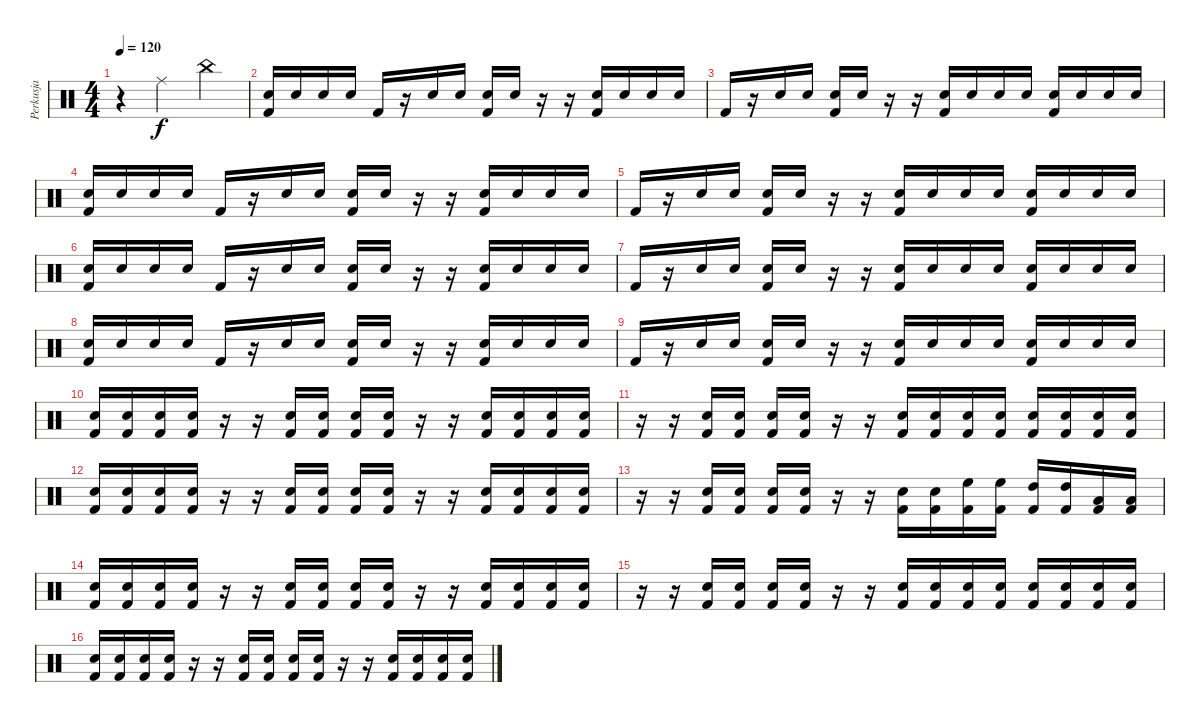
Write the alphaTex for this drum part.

\track ("Perkusja" "Perkusja") {instrument percussion}
\staff {score}
\articulation defaults
\ts (4 4)
\tempo 120
\clef neutral
\ks c
r.4{dy f} "Ride (middle)".2 "China (hit)".4 |
("Electric Snare (hit)" "Kick (hit) 2").16 "Electric Snare (hit)".16 "Electric Snare (hit)".16 "Electric Snare (hit)".16 "Kick (hit) 2".16 r.16 "Electric Snare (hit)".16 "Electric Snare (hit)".16 ("Electric Snare (hit)" "Kick (hit) 2").16 "Electric Snare (hit)".16 r.16 r.16 ("Electric Snare (hit)" "Kick (hit) 2").16 "Electric Snare (hit)".16 "Electric Snare (hit)".16 "Electric Snare (hit)".16 |
"Kick (hit) 2".16 r.16 "Electric Snare (hit)".16 "Electric Snare (hit)".16 ("Electric Snare (hit)" "Kick (hit) 2").16 "Electric Snare (hit)".16 r.16 r.16 ("Electric Snare (hit)" "Kick (hit) 2").16 "Electric Snare (hit)".16 "Electric Snare (hit)".16 "Electric Snare (hit)".16 ("Electric Snare (hit)" "Kick (hit) 2").16 "Electric Snare (hit)".16 "Electric Snare (hit)".16 "Electric Snare (hit)".16 |
("Electric Snare (hit)" "Kick (hit) 2").16 "Electric Snare (hit)".16 "Electric Snare (hit)".16 "Electric Snare (hit)".16 "Kick (hit) 2".16 r.16 "Electric Snare (hit)".16 "Electric Snare (hit)".16 ("Electric Snare (hit)" "Kick (hit) 2").16 "Electric Snare (hit)".16 r.16 r.16 ("Electric Snare (hit)" "Kick (hit) 2").16 "Electric Snare (hit)".16 "Electric Snare (hit)".16 "Electric Snare (hit)".16 |
"Kick (hit) 2".16 r.16 "Electric Snare (hit)".16 "Electric Snare (hit)".16 ("Electric Snare (hit)" "Kick (hit) 2").16 "Electric Snare (hit)".16 r.16 r.16 ("Electric Snare (hit)" "Kick (hit) 2").16 "Electric Snare (hit)".16 "Electric Snare (hit)".16 "Electric Snare (hit)".16 ("Electric Snare (hit)" "Kick (hit) 2").16 "Electric Snare (hit)".16 "Electric Snare (hit)".16 "Electric Snare (hit)".16 |
("Electric Snare (hit)" "Kick (hit) 2").16 "Electric Snare (hit)".16 "Electric Snare (hit)".16 "Electric Snare (hit)".16 "Kick (hit) 2".16 r.16 "Electric Snare (hit)".16 "Electric Snare (hit)".16 ("Electric Snare (hit)" "Kick (hit) 2").16 "Electric Snare (hit)".16 r.16 r.16 ("Electric Snare (hit)" "Kick (hit) 2").16 "Electric Snare (hit)".16 "Electric Snare (hit)".16 "Electric Snare (hit)".16 |
"Kick (hit) 2".16 r.16 "Electric Snare (hit)".16 "Electric Snare (hit)".16 ("Electric Snare (hit)" "Kick (hit) 2").16 "Electric Snare (hit)".16 r.16 r.16 ("Electric Snare (hit)" "Kick (hit) 2").16 "Electric Snare (hit)".16 "Electric Snare (hit)".16 "Electric Snare (hit)".16 ("Electric Snare (hit)" "Kick (hit) 2").16 "Electric Snare (hit)".16 "Electric Snare (hit)".16 "Electric Snare (hit)".16 |
("Electric Snare (hit)" "Kick (hit) 2").16 "Electric Snare (hit)".16 "Electric Snare (hit)".16 "Electric Snare (hit)".16 "Kick (hit) 2".16 r.16 "Electric Snare (hit)".16 "Electric Snare (hit)".16 ("Electric Snare (hit)" "Kick (hit) 2").16 "Electric Snare (hit)".16 r.16 r.16 ("Electric Snare (hit)" "Kick (hit) 2").16 "Electric Snare (hit)".16 "Electric Snare (hit)".16 "Electric Snare (hit)".16 |
"Kick (hit) 2".16 r.16 "Electric Snare (hit)".16 "Electric Snare (hit)".16 ("Electric Snare (hit)" "Kick (hit) 2").16 "Electric Snare (hit)".16 r.16 r.16 ("Electric Snare (hit)" "Kick (hit) 2").16 "Electric Snare (hit)".16 "Electric Snare (hit)".16 "Electric Snare (hit)".16 ("Electric Snare (hit)" "Kick (hit) 2").16 "Electric Snare (hit)".16 "Electric Snare (hit)".16 "Electric Snare (hit)".16 |
("Electric Snare (hit)" "Kick (hit) 2").16 ("Electric Snare (hit)" "Kick (hit) 2").16 ("Electric Snare (hit)" "Kick (hit) 2").16 ("Electric Snare (hit)" "Kick (hit) 2").16 r.16 r.16 ("Electric Snare (hit)" "Kick (hit) 2").16 ("Electric Snare (hit)" "Kick (hit) 2").16 ("Electric Snare (hit)" "Kick (hit) 2").16 ("Electric Snare (hit)" "Kick (hit) 2").16 r.16 r.16 ("Electric Snare (hit)" "Kick (hit) 2").16 ("Electric Snare (hit)" "Kick (hit) 2").16 ("Electric Snare (hit)" "Kick (hit) 2").16 ("Electric Snare (hit)" "Kick (hit) 2").16 |
r.16 r.16 ("Electric Snare (hit)" "Kick (hit) 2").16 ("Electric Snare (hit)" "Kick (hit) 2").16 ("Electric Snare (hit)" "Kick (hit) 2").16 ("Electric Snare (hit)" "Kick (hit) 2").16 r.16 r.16 ("Electric Snare (hit)" "Kick (hit) 2").16 ("Electric Snare (hit)" "Kick (hit) 2").16 ("Electric Snare (hit)" "Kick (hit) 2").16 ("Electric Snare (hit)" "Kick (hit) 2").16 ("Electric Snare (hit)" "Kick (hit) 2").16 ("Electric Snare (hit)" "Kick (hit) 2").16 ("Electric Snare (hit)" "Kick (hit) 2").16 ("Electric Snare (hit)" "Kick (hit) 2").16 |
("Electric Snare (hit)" "Kick (hit) 2").16 ("Electric Snare (hit)" "Kick (hit) 2").16 ("Electric Snare (hit)" "Kick (hit) 2").16 ("Electric Snare (hit)" "Kick (hit) 2").16 r.16 r.16 ("Electric Snare (hit)" "Kick (hit) 2").16 ("Electric Snare (hit)" "Kick (hit) 2").16 ("Electric Snare (hit)" "Kick (hit) 2").16 ("Electric Snare (hit)" "Kick (hit) 2").16 r.16 r.16 ("Electric Snare (hit)" "Kick (hit) 2").16 ("Electric Snare (hit)" "Kick (hit) 2").16 ("Electric Snare (hit)" "Kick (hit) 2").16 ("Electric Snare (hit)" "Kick (hit) 2").16 |
r.16 r.16 ("Electric Snare (hit)" "Kick (hit) 2").16 ("Electric Snare (hit)" "Kick (hit) 2").16 ("Electric Snare (hit)" "Kick (hit) 2").16 ("Electric Snare (hit)" "Kick (hit) 2").16 r.16 r.16 ("Electric Snare (hit)" "Kick (hit) 2").16 ("Electric Snare (hit)" "Kick (hit) 2").16 ("High Floor Tom (hit)" "Kick (hit) 2").16 ("High Floor Tom (hit)" "Kick (hit) 2").16 ("High Tom (hit)" "Kick (hit) 2").16 ("High Tom (hit)" "Kick (hit) 2").16 ("Low Floor Tom (hit)" "Kick (hit) 2").16 ("Low Floor Tom (hit)" "Kick (hit) 2").16 |
("Electric Snare (hit)" "Kick (hit) 2").16 ("Electric Snare (hit)" "Kick (hit) 2").16 ("Electric Snare (hit)" "Kick (hit) 2").16 ("Electric Snare (hit)" "Kick (hit) 2").16 r.16 r.16 ("Electric Snare (hit)" "Kick (hit) 2").16 ("Electric Snare (hit)" "Kick (hit) 2").16 ("Electric Snare (hit)" "Kick (hit) 2").16 ("Electric Snare (hit)" "Kick (hit) 2").16 r.16 r.16 ("Electric Snare (hit)" "Kick (hit) 2").16 ("Electric Snare (hit)" "Kick (hit) 2").16 ("Electric Snare (hit)" "Kick (hit) 2").16 ("Electric Snare (hit)" "Kick (hit) 2").16 |
r.16 r.16 ("Electric Snare (hit)" "Kick (hit) 2").16 ("Electric Snare (hit)" "Kick (hit) 2").16 ("Electric Snare (hit)" "Kick (hit) 2").16 ("Electric Snare (hit)" "Kick (hit) 2").16 r.16 r.16 ("Electric Snare (hit)" "Kick (hit) 2").16 ("Electric Snare (hit)" "Kick (hit) 2").16 ("Electric Snare (hit)" "Kick (hit) 2").16 ("Electric Snare (hit)" "Kick (hit) 2").16 ("Electric Snare (hit)" "Kick (hit) 2").16 ("Electric Snare (hit)" "Kick (hit) 2").16 ("Electric Snare (hit)" "Kick (hit) 2").16 ("Electric Snare (hit)" "Kick (hit) 2").16 |
("Electric Snare (hit)" "Kick (hit) 2").16 ("Electric Snare (hit)" "Kick (hit) 2").16 ("Electric Snare (hit)" "Kick (hit) 2").16 ("Electric Snare (hit)" "Kick (hit) 2").16 r.16 r.16 ("Electric Snare (hit)" "Kick (hit) 2").16 ("Electric Snare (hit)" "Kick (hit) 2").16 ("Electric Snare (hit)" "Kick (hit) 2").16 ("Electric Snare (hit)" "Kick (hit) 2").16 r.16 r.16 ("Electric Snare (hit)" "Kick (hit) 2").16 ("Electric Snare (hit)" "Kick (hit) 2").16 ("Electric Snare (hit)" "Kick (hit) 2").16 ("Electric Snare (hit)" "Kick (hit) 2").16
